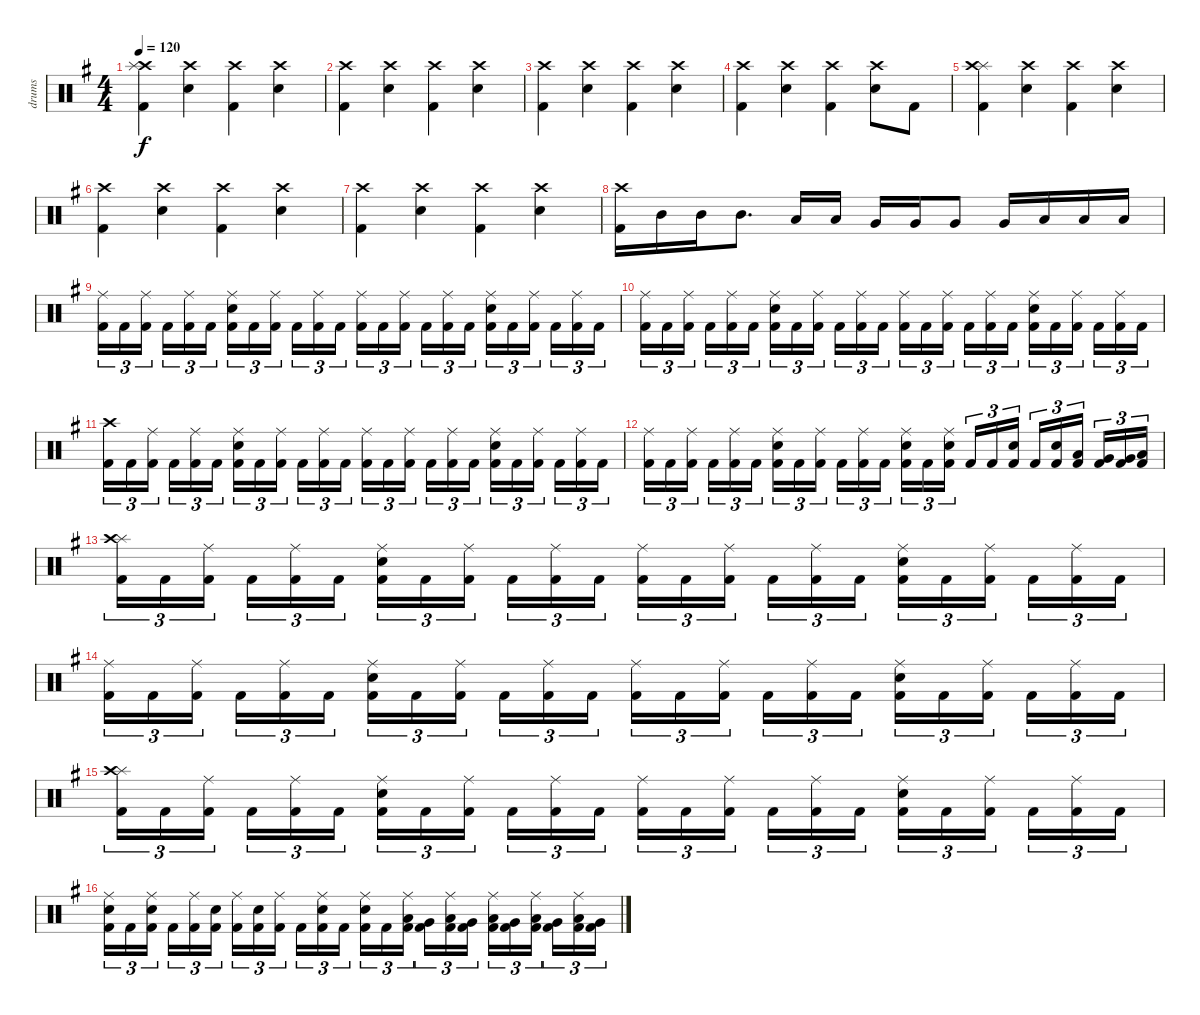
\track ("drums" "drums") {instrument percussion}
\staff {score}
\articulation defaults
\ts (4 4)
\tempo 120
\clef neutral
\ks eminor
("Kick (hit) 2" "Crash high (hit)" "Splash (hit)").4{dy f} ("Electric Snare (hit)" "Crash high (hit)").4 ("Kick (hit) 2" "Crash high (hit)").4 ("Electric Snare (hit)" "Crash high (hit)").4 |
("Kick (hit) 2" "Crash high (hit)").4 ("Electric Snare (hit)" "Crash high (hit)").4 ("Kick (hit) 2" "Crash high (hit)").4 ("Electric Snare (hit)" "Crash high (hit)").4 |
("Kick (hit) 2" "Crash high (hit)").4 ("Electric Snare (hit)" "Crash high (hit)").4 ("Kick (hit) 2" "Crash high (hit)").4 ("Electric Snare (hit)" "Crash high (hit)").4 |
("Kick (hit) 2" "Crash high (hit)").4 ("Electric Snare (hit)" "Crash high (hit)").4 ("Kick (hit) 2" "Crash high (hit)").4 ("Electric Snare (hit)" "Crash high (hit)").8 "Kick (hit) 2".8 |
("Kick (hit) 2" "Splash (hit)" "Crash high (hit)").4 ("Electric Snare (hit)" "Crash high (hit)").4 ("Kick (hit) 2" "Crash high (hit)").4 ("Electric Snare (hit)" "Crash high (hit)").4 |
("Kick (hit) 2" "Crash high (hit)").4 ("Electric Snare (hit)" "Crash high (hit)").4 ("Kick (hit) 2" "Crash high (hit)").4 ("Electric Snare (hit)" "Crash high (hit)").4 |
("Kick (hit) 2" "Crash high (hit)").4 ("Electric Snare (hit)" "Crash high (hit)").4 ("Kick (hit) 2" "Crash high (hit)").4 ("Electric Snare (hit)" "Crash high (hit)").4 |
("Kick (hit) 2" "Crash high (hit)").16 "Mid Tom (hit)".16 "Mid Tom (hit)".16 "Mid Tom (hit)".8{d} "Low Tom (hit)".16 "Low Tom (hit)".16 "Very Low Tom (hit)".16 "Very Low Tom (hit)".16 "Very Low Tom (hit)".8 "Very Low Tom (hit)".16 "Low Floor Tom (hit)".16 "Low Floor Tom (hit)".16 "Low Floor Tom (hit)".16 |
("Kick (hit) 2" "Ride (middle)").16{tu (3 2)} "Kick (hit) 2".16{tu (3 2)} ("Kick (hit) 2" "Ride (middle)").16{tu (3 2) beam splitsecondary} "Kick (hit) 2".16{tu (3 2)} ("Kick (hit) 2" "Ride (middle)").16{tu (3 2)} "Kick (hit) 2".16{tu (3 2)} ("Kick (hit) 2" "Electric Snare (hit)" "Ride (middle)").16{tu (3 2)} "Kick (hit) 2".16{tu (3 2)} ("Kick (hit) 2" "Ride (middle)").16{tu (3 2) beam splitsecondary} "Kick (hit) 2".16{tu (3 2)} ("Kick (hit) 2" "Ride (middle)").16{tu (3 2)} "Kick (hit) 2".16{tu (3 2)} ("Kick (hit) 2" "Ride (middle)").16{tu (3 2)} "Kick (hit) 2".16{tu (3 2)} ("Kick (hit) 2" "Ride (middle)").16{tu (3 2) beam splitsecondary} "Kick (hit) 2".16{tu (3 2)} ("Kick (hit) 2" "Ride (middle)").16{tu (3 2)} "Kick (hit) 2".16{tu (3 2)} ("Kick (hit) 2" "Electric Snare (hit)" "Ride (middle)").16{tu (3 2)} "Kick (hit) 2".16{tu (3 2)} ("Kick (hit) 2" "Ride (middle)").16{tu (3 2) beam splitsecondary} "Kick (hit) 2".16{tu (3 2)} ("Kick (hit) 2" "Ride (middle)").16{tu (3 2)} "Kick (hit) 2".16{tu (3 2)} |
("Kick (hit) 2" "Ride (middle)").16{tu (3 2)} "Kick (hit) 2".16{tu (3 2)} ("Kick (hit) 2" "Ride (middle)").16{tu (3 2) beam splitsecondary} "Kick (hit) 2".16{tu (3 2)} ("Kick (hit) 2" "Ride (middle)").16{tu (3 2)} "Kick (hit) 2".16{tu (3 2)} ("Kick (hit) 2" "Electric Snare (hit)" "Ride (middle)").16{tu (3 2)} "Kick (hit) 2".16{tu (3 2)} ("Kick (hit) 2" "Ride (middle)").16{tu (3 2) beam splitsecondary} "Kick (hit) 2".16{tu (3 2)} ("Kick (hit) 2" "Ride (middle)").16{tu (3 2)} "Kick (hit) 2".16{tu (3 2)} ("Kick (hit) 2" "Ride (middle)").16{tu (3 2)} "Kick (hit) 2".16{tu (3 2)} ("Kick (hit) 2" "Ride (middle)").16{tu (3 2) beam splitsecondary} "Kick (hit) 2".16{tu (3 2)} ("Kick (hit) 2" "Ride (middle)").16{tu (3 2)} "Kick (hit) 2".16{tu (3 2)} ("Kick (hit) 2" "Electric Snare (hit)" "Ride (middle)").16{tu (3 2)} "Kick (hit) 2".16{tu (3 2)} ("Kick (hit) 2" "Ride (middle)").16{tu (3 2) beam splitsecondary} "Kick (hit) 2".16{tu (3 2)} ("Kick (hit) 2" "Ride (middle)").16{tu (3 2)} "Kick (hit) 2".16{tu (3 2)} |
("Kick (hit) 2" "Crash high (hit)").16{tu (3 2)} "Kick (hit) 2".16{tu (3 2)} ("Kick (hit) 2" "Ride (middle)").16{tu (3 2) beam splitsecondary} "Kick (hit) 2".16{tu (3 2)} ("Kick (hit) 2" "Ride (middle)").16{tu (3 2)} "Kick (hit) 2".16{tu (3 2)} ("Kick (hit) 2" "Electric Snare (hit)" "Ride (middle)").16{tu (3 2)} "Kick (hit) 2".16{tu (3 2)} ("Kick (hit) 2" "Ride (middle)").16{tu (3 2) beam splitsecondary} "Kick (hit) 2".16{tu (3 2)} ("Kick (hit) 2" "Ride (middle)").16{tu (3 2)} "Kick (hit) 2".16{tu (3 2)} ("Kick (hit) 2" "Ride (middle)").16{tu (3 2)} "Kick (hit) 2".16{tu (3 2)} ("Kick (hit) 2" "Ride (middle)").16{tu (3 2) beam splitsecondary} "Kick (hit) 2".16{tu (3 2)} ("Kick (hit) 2" "Ride (middle)").16{tu (3 2)} "Kick (hit) 2".16{tu (3 2)} ("Kick (hit) 2" "Electric Snare (hit)" "Ride (middle)").16{tu (3 2)} "Kick (hit) 2".16{tu (3 2)} ("Kick (hit) 2" "Ride (middle)").16{tu (3 2) beam splitsecondary} "Kick (hit) 2".16{tu (3 2)} ("Kick (hit) 2" "Ride (middle)").16{tu (3 2)} "Kick (hit) 2".16{tu (3 2)} |
("Kick (hit) 2" "Ride (middle)").16{tu (3 2)} "Kick (hit) 2".16{tu (3 2)} ("Kick (hit) 2" "Ride (middle)").16{tu (3 2) beam splitsecondary} "Kick (hit) 2".16{tu (3 2)} ("Kick (hit) 2" "Ride (middle)").16{tu (3 2)} "Kick (hit) 2".16{tu (3 2)} ("Kick (hit) 2" "Electric Snare (hit)" "Ride (middle)").16{tu (3 2)} "Kick (hit) 2".16{tu (3 2)} ("Kick (hit) 2" "Ride (middle)").16{tu (3 2) beam splitsecondary} "Kick (hit) 2".16{tu (3 2)} ("Kick (hit) 2" "Ride (middle)").16{tu (3 2)} "Kick (hit) 2".16{tu (3 2)} ("Kick (hit) 2" "Electric Snare (hit)" "Ride (middle)").16{tu (3 2)} "Kick (hit) 2".16{tu (3 2)} ("Kick (hit) 2" "Electric Snare (hit)" "Ride (middle)").16{tu (3 2) beam splitsecondary} "Kick (hit) 2".16{tu (3 2)} "Kick (hit) 2".16{tu (3 2)} ("Kick (hit) 2" "Electric Snare (hit)").16{tu (3 2)} "Kick (hit) 2".16{tu (3 2)} ("Kick (hit) 2" "Electric Snare (hit)").16{tu (3 2)} ("Kick (hit) 2" "Low Tom (hit)").16{tu (3 2) beam splitsecondary} ("Kick (hit) 2" "Very Low Tom (hit)").16{tu (3 2)} ("Kick (hit) 2" "Very Low Tom (hit)").16{tu (3 2)} ("Kick (hit) 2" "Low Floor Tom (hit)").16{tu (3 2)} |
("Kick (hit) 2" "Splash (hit)" "Crash high (hit)").16{tu (3 2)} "Kick (hit) 2".16{tu (3 2)} ("Kick (hit) 2" "Ride (middle)").16{tu (3 2) beam splitsecondary} "Kick (hit) 2".16{tu (3 2)} ("Kick (hit) 2" "Ride (middle)").16{tu (3 2)} "Kick (hit) 2".16{tu (3 2)} ("Kick (hit) 2" "Electric Snare (hit)" "Ride (middle)").16{tu (3 2)} "Kick (hit) 2".16{tu (3 2)} ("Kick (hit) 2" "Ride (middle)").16{tu (3 2) beam splitsecondary} "Kick (hit) 2".16{tu (3 2)} ("Kick (hit) 2" "Ride (middle)").16{tu (3 2)} "Kick (hit) 2".16{tu (3 2)} ("Kick (hit) 2" "Ride (middle)").16{tu (3 2)} "Kick (hit) 2".16{tu (3 2)} ("Kick (hit) 2" "Ride (middle)").16{tu (3 2) beam splitsecondary} "Kick (hit) 2".16{tu (3 2)} ("Kick (hit) 2" "Ride (middle)").16{tu (3 2)} "Kick (hit) 2".16{tu (3 2)} ("Kick (hit) 2" "Electric Snare (hit)" "Ride (middle)").16{tu (3 2)} "Kick (hit) 2".16{tu (3 2)} ("Kick (hit) 2" "Ride (middle)").16{tu (3 2) beam splitsecondary} "Kick (hit) 2".16{tu (3 2)} ("Kick (hit) 2" "Ride (middle)").16{tu (3 2)} "Kick (hit) 2".16{tu (3 2)} |
("Kick (hit) 2" "Ride (middle)").16{tu (3 2)} "Kick (hit) 2".16{tu (3 2)} ("Kick (hit) 2" "Ride (middle)").16{tu (3 2) beam splitsecondary} "Kick (hit) 2".16{tu (3 2)} ("Kick (hit) 2" "Ride (middle)").16{tu (3 2)} "Kick (hit) 2".16{tu (3 2)} ("Kick (hit) 2" "Electric Snare (hit)" "Ride (middle)").16{tu (3 2)} "Kick (hit) 2".16{tu (3 2)} ("Kick (hit) 2" "Ride (middle)").16{tu (3 2) beam splitsecondary} "Kick (hit) 2".16{tu (3 2)} ("Kick (hit) 2" "Ride (middle)").16{tu (3 2)} "Kick (hit) 2".16{tu (3 2)} ("Kick (hit) 2" "Ride (middle)").16{tu (3 2)} "Kick (hit) 2".16{tu (3 2)} ("Kick (hit) 2" "Ride (middle)").16{tu (3 2) beam splitsecondary} "Kick (hit) 2".16{tu (3 2)} ("Kick (hit) 2" "Ride (middle)").16{tu (3 2)} "Kick (hit) 2".16{tu (3 2)} ("Kick (hit) 2" "Electric Snare (hit)" "Ride (middle)").16{tu (3 2)} "Kick (hit) 2".16{tu (3 2)} ("Kick (hit) 2" "Ride (middle)").16{tu (3 2) beam splitsecondary} "Kick (hit) 2".16{tu (3 2)} ("Kick (hit) 2" "Ride (middle)").16{tu (3 2)} "Kick (hit) 2".16{tu (3 2)} |
("Kick (hit) 2" "Splash (hit)" "Crash high (hit)").16{tu (3 2)} "Kick (hit) 2".16{tu (3 2)} ("Kick (hit) 2" "Ride (middle)").16{tu (3 2) beam splitsecondary} "Kick (hit) 2".16{tu (3 2)} ("Kick (hit) 2" "Ride (middle)").16{tu (3 2)} "Kick (hit) 2".16{tu (3 2)} ("Kick (hit) 2" "Electric Snare (hit)" "Ride (middle)").16{tu (3 2)} "Kick (hit) 2".16{tu (3 2)} ("Kick (hit) 2" "Ride (middle)").16{tu (3 2) beam splitsecondary} "Kick (hit) 2".16{tu (3 2)} ("Kick (hit) 2" "Ride (middle)").16{tu (3 2)} "Kick (hit) 2".16{tu (3 2)} ("Kick (hit) 2" "Ride (middle)").16{tu (3 2)} "Kick (hit) 2".16{tu (3 2)} ("Kick (hit) 2" "Ride (middle)").16{tu (3 2) beam splitsecondary} "Kick (hit) 2".16{tu (3 2)} ("Kick (hit) 2" "Ride (middle)").16{tu (3 2)} "Kick (hit) 2".16{tu (3 2)} ("Kick (hit) 2" "Electric Snare (hit)" "Ride (middle)").16{tu (3 2)} "Kick (hit) 2".16{tu (3 2)} ("Kick (hit) 2" "Ride (middle)").16{tu (3 2) beam splitsecondary} "Kick (hit) 2".16{tu (3 2)} ("Kick (hit) 2" "Ride (middle)").16{tu (3 2)} "Kick (hit) 2".16{tu (3 2)} |
("Kick (hit) 2" "Electric Snare (hit)" "Ride (middle)").16{tu (3 2)} "Kick (hit) 2".16{tu (3 2)} ("Kick (hit) 2" "Electric Snare (hit)" "Ride (middle)").16{tu (3 2) beam splitsecondary} "Kick (hit) 2".16{tu (3 2)} ("Kick (hit) 2" "Ride (middle)").16{tu (3 2)} ("Kick (hit) 2" "Electric Snare (hit)").16{tu (3 2)} ("Kick (hit) 2" "Ride (middle)").16{tu (3 2)} ("Kick (hit) 2" "Electric Snare (hit)").16{tu (3 2)} ("Kick (hit) 2" "Ride (middle)").16{tu (3 2) beam splitsecondary} "Kick (hit) 2".16{tu (3 2)} ("Kick (hit) 2" "Electric Snare (hit)" "Ride (middle)").16{tu (3 2)} "Kick (hit) 2".16{tu (3 2)} ("Kick (hit) 2" "Electric Snare (hit)" "Ride (middle)").16{tu (3 2)} "Kick (hit) 2".16{tu (3 2)} ("Kick (hit) 2" "Low Tom (hit)" "Ride (middle)").16{tu (3 2) beam splitsecondary} ("Kick (hit) 2" "Very Low Tom (hit)").16{tu (3 2)} ("Kick (hit) 2" "Low Tom (hit)" "Ride (middle)").16{tu (3 2)} ("Kick (hit) 2" "Very Low Tom (hit)").16{tu (3 2)} ("Kick (hit) 2" "Low Tom (hit)" "Ride (middle)").16{tu (3 2)} ("Kick (hit) 2" "Very Low Tom (hit)").16{tu (3 2)} ("Kick (hit) 2" "Low Floor Tom (hit)" "Ride (middle)").16{tu (3 2) beam splitsecondary} ("Kick (hit) 2" "Very Low Tom (hit)").16{tu (3 2)} ("Kick (hit) 2" "Low Floor Tom (hit)" "Ride (middle)").16{tu (3 2)} ("Kick (hit) 2" "Very Low Tom (hit)").16{tu (3 2)}
